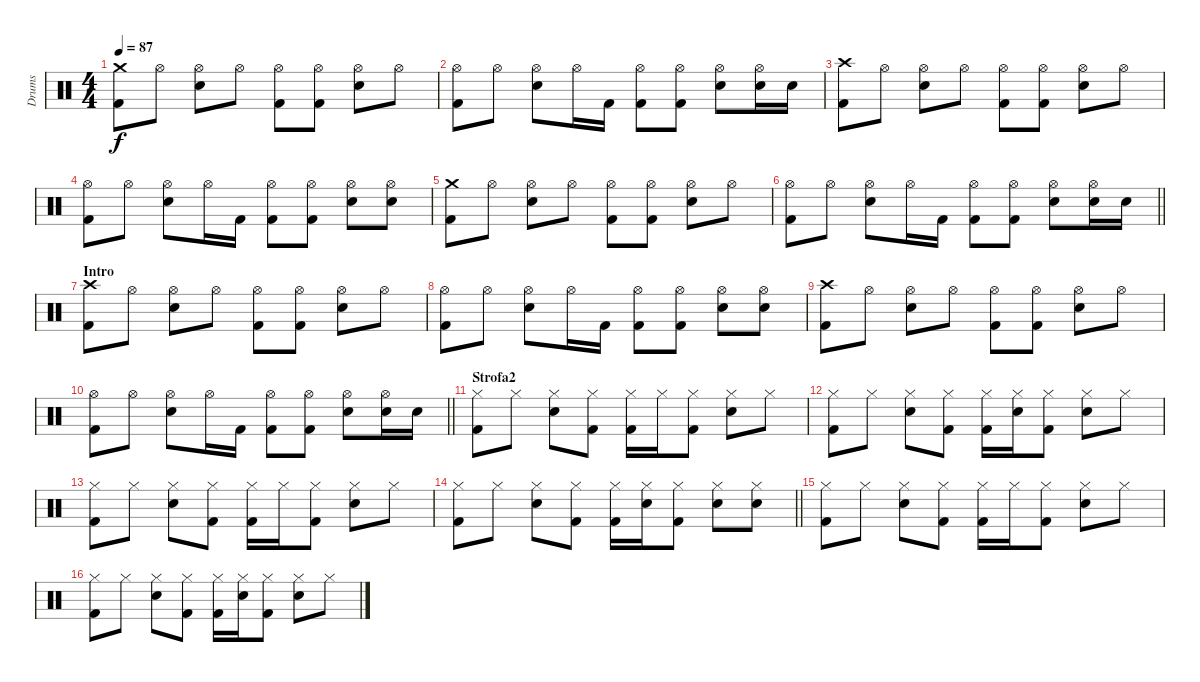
\track ("Drums" "Drums") {instrument percussion}
\staff {score}
\articulation defaults
\ts (4 4)
\tempo 87
\clef neutral
\ks c
("Crash medium (hit)" "Kick (hit) 2").8{dy f} "Hi-Hat (open)".8 ("Hi-Hat (open)" "Snare (hit) 2").8 "Hi-Hat (open)".8 ("Hi-Hat (open)" "Kick (hit) 2").8 ("Hi-Hat (open)" "Kick (hit) 2").8 ("Hi-Hat (open)" "Snare (hit) 2").8 "Hi-Hat (open)".8 |
("Hi-Hat (open)" "Kick (hit) 2").8 "Hi-Hat (open)".8 ("Hi-Hat (open)" "Snare (hit) 2").8 "Hi-Hat (open)".16 "Kick (hit) 2".16 ("Hi-Hat (open)" "Kick (hit) 2").8 ("Hi-Hat (open)" "Kick (hit) 2").8 ("Hi-Hat (open)" "Snare (hit) 2").8 ("Hi-Hat (open)" "Snare (hit) 2").16 "Snare (hit) 2".16 |
("Crash high (hit)" "Kick (hit) 2").8 "Hi-Hat (open)".8 ("Hi-Hat (open)" "Snare (hit) 2").8 "Hi-Hat (open)".8 ("Hi-Hat (open)" "Kick (hit) 2").8 ("Hi-Hat (open)" "Kick (hit) 2").8 ("Hi-Hat (open)" "Snare (hit) 2").8 "Hi-Hat (open)".8 |
("Hi-Hat (open)" "Kick (hit) 2").8 "Hi-Hat (open)".8 ("Hi-Hat (open)" "Snare (hit) 2").8 "Hi-Hat (open)".16 "Kick (hit) 2".16 ("Hi-Hat (open)" "Kick (hit) 2").8 ("Hi-Hat (open)" "Kick (hit) 2").8 ("Hi-Hat (open)" "Snare (hit) 2").8 ("Hi-Hat (open)" "Snare (hit) 2").8 |
("Crash medium (hit)" "Kick (hit) 2").8 "Hi-Hat (open)".8 ("Hi-Hat (open)" "Snare (hit) 2").8 "Hi-Hat (open)".8 ("Hi-Hat (open)" "Kick (hit) 2").8 ("Hi-Hat (open)" "Kick (hit) 2").8 ("Hi-Hat (open)" "Snare (hit) 2").8 "Hi-Hat (open)".8 |
\barLineRight lightlight
("Hi-Hat (open)" "Kick (hit) 2").8 "Hi-Hat (open)".8 ("Hi-Hat (open)" "Snare (hit) 2").8 "Hi-Hat (open)".16 "Kick (hit) 2".16 ("Hi-Hat (open)" "Kick (hit) 2").8 ("Hi-Hat (open)" "Kick (hit) 2").8 ("Hi-Hat (open)" "Snare (hit) 2").8 ("Hi-Hat (open)" "Snare (hit) 2").16 "Snare (hit) 2".16 |
\section ("" "Intro")
("Crash high (hit)" "Kick (hit) 2").8 "Hi-Hat (open)".8 ("Hi-Hat (open)" "Snare (hit) 2").8 "Hi-Hat (open)".8 ("Hi-Hat (open)" "Kick (hit) 2").8 ("Hi-Hat (open)" "Kick (hit) 2").8 ("Hi-Hat (open)" "Snare (hit) 2").8 "Hi-Hat (open)".8 |
("Hi-Hat (open)" "Kick (hit) 2").8 "Hi-Hat (open)".8 ("Hi-Hat (open)" "Snare (hit) 2").8 "Hi-Hat (open)".16 "Kick (hit) 2".16 ("Hi-Hat (open)" "Kick (hit) 2").8 ("Hi-Hat (open)" "Kick (hit) 2").8 ("Hi-Hat (open)" "Snare (hit) 2").8 ("Hi-Hat (open)" "Snare (hit) 2").8 |
("Crash high (hit)" "Kick (hit) 2").8 "Hi-Hat (open)".8 ("Hi-Hat (open)" "Snare (hit) 2").8 "Hi-Hat (open)".8 ("Hi-Hat (open)" "Kick (hit) 2").8 ("Hi-Hat (open)" "Kick (hit) 2").8 ("Hi-Hat (open)" "Snare (hit) 2").8 "Hi-Hat (open)".8 |
\barLineRight lightlight
("Hi-Hat (open)" "Kick (hit) 2").8 "Hi-Hat (open)".8 ("Hi-Hat (open)" "Snare (hit) 2").8 "Hi-Hat (open)".16 "Kick (hit) 2".16 ("Hi-Hat (open)" "Kick (hit) 2").8 ("Hi-Hat (open)" "Kick (hit) 2").8 ("Hi-Hat (open)" "Snare (hit) 2").8 ("Hi-Hat (open)" "Snare (hit) 2").16 "Snare (hit) 2".16 |
\section ("" "Strofa2")
("Hi-Hat (closed)" "Kick (hit) 2").8 "Hi-Hat (closed)".8 ("Hi-Hat (closed)" "Electric Snare (hit)").8 ("Hi-Hat (closed)" "Kick (hit) 2").8 ("Hi-Hat (closed)" "Kick (hit) 2").16 "Hi-Hat (closed)".16 ("Hi-Hat (closed)" "Kick (hit) 2").8 ("Hi-Hat (closed)" "Electric Snare (hit)").8 "Hi-Hat (closed)".8 |
("Hi-Hat (closed)" "Kick (hit) 2").8 "Hi-Hat (closed)".8 ("Hi-Hat (closed)" "Electric Snare (hit)").8 ("Hi-Hat (closed)" "Kick (hit) 2").8 ("Hi-Hat (closed)" "Kick (hit) 2").16 ("Hi-Hat (closed)" "Electric Snare (hit)").16 ("Hi-Hat (closed)" "Kick (hit) 2").8 ("Hi-Hat (closed)" "Electric Snare (hit)").8 "Hi-Hat (closed)".8 |
("Hi-Hat (closed)" "Kick (hit) 2").8 "Hi-Hat (closed)".8 ("Hi-Hat (closed)" "Electric Snare (hit)").8 ("Hi-Hat (closed)" "Kick (hit) 2").8 ("Hi-Hat (closed)" "Kick (hit) 2").16 "Hi-Hat (closed)".16 ("Hi-Hat (closed)" "Kick (hit) 2").8 ("Hi-Hat (closed)" "Electric Snare (hit)").8 "Hi-Hat (closed)".8 |
\barLineRight lightlight
("Hi-Hat (closed)" "Kick (hit) 2").8 "Hi-Hat (closed)".8 ("Hi-Hat (closed)" "Electric Snare (hit)").8 ("Hi-Hat (closed)" "Kick (hit) 2").8 ("Hi-Hat (closed)" "Kick (hit) 2").16 ("Hi-Hat (closed)" "Electric Snare (hit)").16 ("Hi-Hat (closed)" "Kick (hit) 2").8 ("Hi-Hat (closed)" "Electric Snare (hit)").8 ("Hi-Hat (closed)" "Electric Snare (hit)").8 |
("Hi-Hat (closed)" "Kick (hit) 2").8 "Hi-Hat (closed)".8 ("Hi-Hat (closed)" "Electric Snare (hit)").8 ("Hi-Hat (closed)" "Kick (hit) 2").8 ("Hi-Hat (closed)" "Kick (hit) 2").16 "Hi-Hat (closed)".16 ("Hi-Hat (closed)" "Kick (hit) 2").8 ("Hi-Hat (closed)" "Electric Snare (hit)").8 "Hi-Hat (closed)".8 |
("Hi-Hat (closed)" "Kick (hit) 2").8 "Hi-Hat (closed)".8 ("Hi-Hat (closed)" "Electric Snare (hit)").8 ("Hi-Hat (closed)" "Kick (hit) 2").8 ("Hi-Hat (closed)" "Kick (hit) 2").16 ("Hi-Hat (closed)" "Electric Snare (hit)").16 ("Hi-Hat (closed)" "Kick (hit) 2").8 ("Hi-Hat (closed)" "Electric Snare (hit)").8 "Hi-Hat (closed)".8
